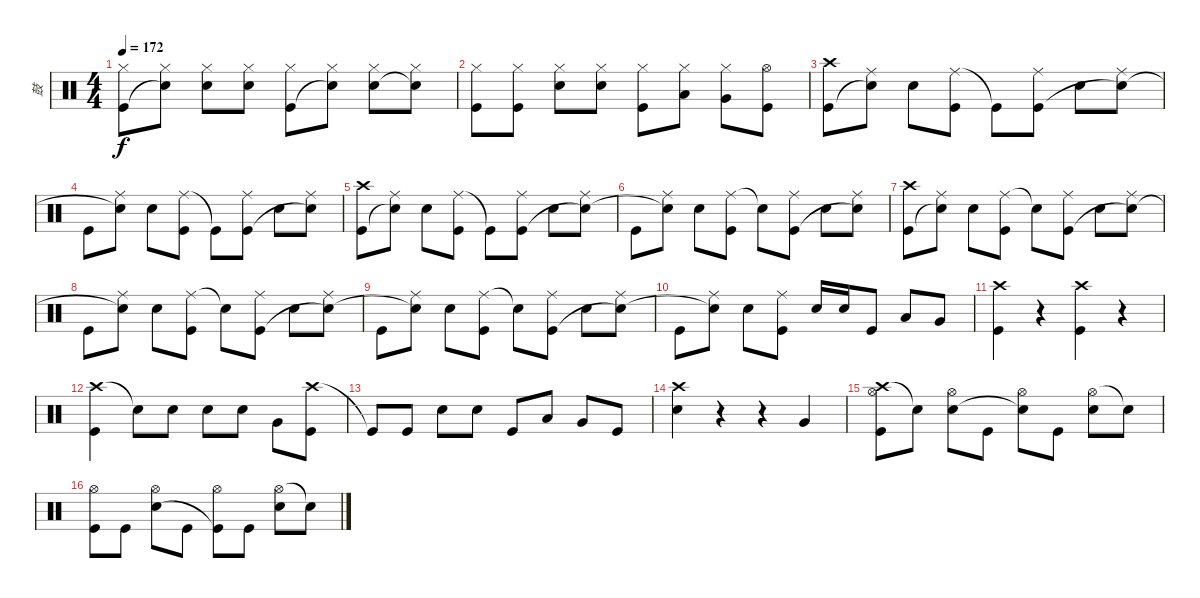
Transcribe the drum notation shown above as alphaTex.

\track ("鼓" "鼓") {instrument percussion}
\staff {score}
\articulation defaults
\ts (4 4)
\tempo 172
\clef neutral
\ks c
("Hi-Hat (closed)" "Kick (hit)").8{dy f} ("Hi-Hat (closed)" "Snare (hit)"{t}).8 ("Hi-Hat (closed)" "Snare (hit) 2").8 ("Hi-Hat (closed)" "Snare (hit) 2").8 ("Hi-Hat (closed)" "Kick (hit)").8 ("Hi-Hat (closed)" "Snare (hit)"{t}).8 ("Hi-Hat (closed)" "Snare (hit) 2").8 ("Hi-Hat (closed)" "Snare (hit)"{t}).8 |
("Hi-Hat (closed)" "Kick (hit)").8 ("Hi-Hat (closed)" "Kick (hit)").8 ("Hi-Hat (closed)" "Snare (hit) 2").8 ("Hi-Hat (closed)" "Snare (hit) 2").8 ("Hi-Hat (closed)" "Kick (hit)").8 ("Hi-Hat (closed)" "Low Tom (hit)").8 ("Hi-Hat (closed)" "Very Low Tom (hit)").8 ("Hi-Hat (open)" "Kick (hit)").8 |
("Crash high (hit)" "Kick (hit)").8 ("Ride (middle)" "Snare (hit) 2"{t}).8 "Snare (hit) 2".8 ("Ride (middle)" "Kick (hit)").8 "Kick (hit)"{t}.8 ("Ride (middle)" "Kick (hit)").8 "Snare (hit) 2".8 ("Ride (middle)" "Snare (hit)"{t}).8 |
"Kick (hit)".8 ("Ride (middle)" "Snare (hit) 2"{t}).8 "Snare (hit) 2".8 ("Ride (middle)" "Kick (hit)").8 "Kick (hit)"{t}.8 ("Ride (middle)" "Kick (hit)").8 "Snare (hit) 2".8 ("Ride (middle)" "Snare (hit)"{t}).8 |
("Crash high (hit)" "Kick (hit)").8 ("Ride (middle)" "Snare (hit) 2"{t}).8 "Snare (hit) 2".8 ("Ride (middle)" "Kick (hit)").8 "Kick (hit)"{t}.8 ("Ride (middle)" "Kick (hit)").8 "Snare (hit) 2".8 ("Ride (middle)" "Snare (hit)"{t}).8 |
"Kick (hit)".8 ("Ride (middle)" "Snare (hit) 2"{t}).8 "Snare (hit) 2".8 ("Ride (middle)" "Kick (hit)").8 "Snare (hit) 2"{t}.8 ("Ride (middle)" "Kick (hit)").8 "Snare (hit) 2".8 ("Ride (middle)" "Snare (hit)"{t}).8 |
("Crash high (hit)" "Kick (hit)").8 ("Ride (middle)" "Snare (hit) 2"{t}).8 "Snare (hit) 2".8 ("Ride (middle)" "Kick (hit)").8 "Snare (hit) 2"{t}.8 ("Ride (middle)" "Kick (hit)").8 "Snare (hit) 2".8 ("Ride (middle)" "Snare (hit)"{t}).8 |
"Kick (hit)".8 ("Ride (middle)" "Snare (hit) 2"{t}).8 "Snare (hit) 2".8 ("Ride (middle)" "Kick (hit)").8 "Snare (hit) 2"{t}.8 ("Ride (middle)" "Kick (hit)").8 "Snare (hit) 2".8 ("Ride (middle)" "Snare (hit)"{t}).8 |
"Kick (hit)".8 ("Ride (middle)" "Snare (hit) 2"{t}).8 "Snare (hit) 2".8 ("Ride (middle)" "Kick (hit)").8 "Snare (hit) 2"{t}.8 ("Ride (middle)" "Kick (hit)").8 "Snare (hit) 2".8 ("Ride (middle)" "Snare (hit)"{t}).8 |
"Kick (hit)".8 ("Ride (middle)" "Snare (hit) 2"{t}).8 "Snare (hit) 2".8 ("Ride (middle)" "Kick (hit)").8 "Snare (hit) 2".16 "Snare (hit) 2".16 "Kick (hit)".8 "Low Tom (hit)".8 "Very Low Tom (hit)".8 |
("Crash high (hit)" "Kick (hit)").4 r.4 ("Crash high (hit)" "Kick (hit)").4 r.4 |
("Crash high (hit)" "Kick (hit)").4 "Snare (hit)"{t}.8 "Snare (hit) 2".8 "Snare (hit) 2".8 "Snare (hit) 2".8 "Very Low Tom (hit)".8 ("Crash high (hit)" "Kick (hit)").8 |
"Kick (hit)"{t}.8 "Kick (hit)".8 "Snare (hit) 2".8 "Snare (hit) 2".8 "Kick (hit)".8 "Low Tom (hit)".8 "Very Low Tom (hit)".8 "Kick (hit)".8 |
("Crash high (hit)" "Snare (hit) 2").4 r.4 r.4 "Very Low Tom (hit)".4 |
("Crash high (hit)" "Hi-Hat (open)" "Kick (hit)").8 "Snare (hit) 2"{t}.8 ("Hi-Hat (open)" "Snare (hit) 2").8 "Kick (hit)".8 ("Hi-Hat (open)" "Snare (hit) 2"{t}).8 "Kick (hit)".8 ("Hi-Hat (open)" "Snare (hit) 2").8 "Snare (hit)"{t}.8 |
("Hi-Hat (open)" "Kick (hit)").8 "Kick (hit)".8 ("Hi-Hat (open)" "Snare (hit) 2").8 "Kick (hit)".8 ("Hi-Hat (open)" "Kick (hit)"{t}).8 "Kick (hit)".8 ("Hi-Hat (open)" "Snare (hit) 2").8 "Snare (hit)"{t}.8
